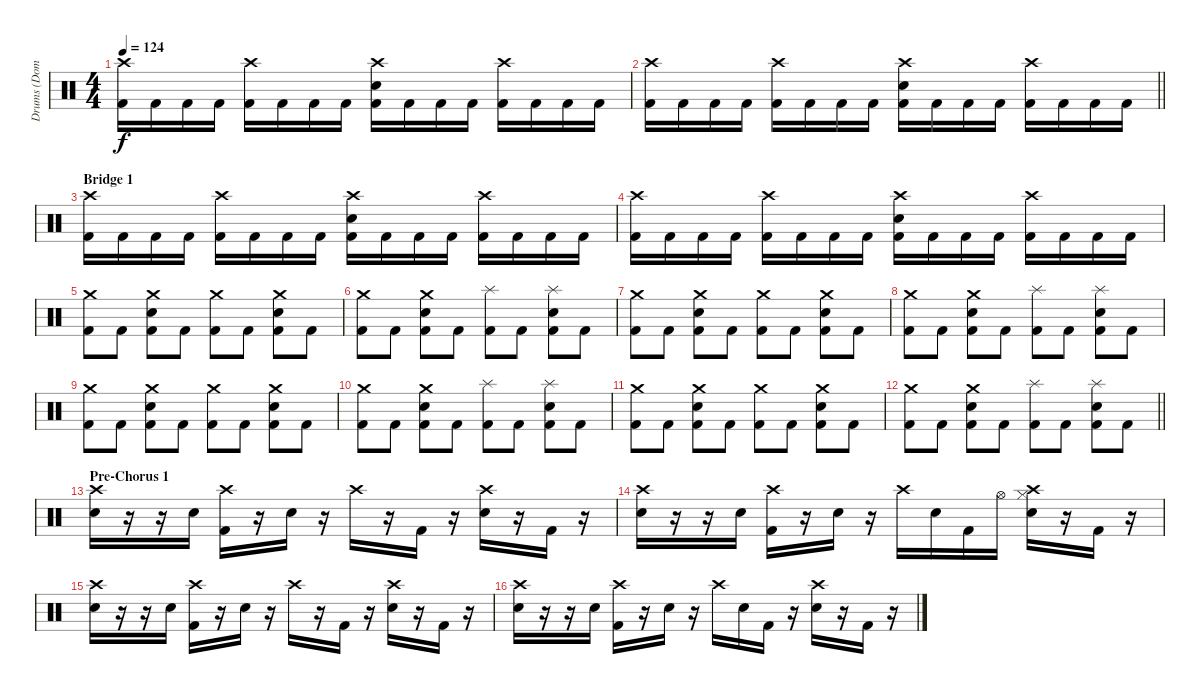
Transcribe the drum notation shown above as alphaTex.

\track ("Drums (Dominik)" "Drums (Dom") {instrument percussion}
\staff {score}
\articulation defaults
\ts (4 4)
\tempo 124
\clef neutral
\ks c
("Crash high (hit)" "Kick (hit) 2").16{dy f} "Kick (hit) 2".16 "Kick (hit) 2".16 "Kick (hit) 2".16 ("Crash high (hit)" "Kick (hit) 2").16 "Kick (hit) 2".16 "Kick (hit) 2".16 "Kick (hit) 2".16 ("Crash high (hit)" "Electric Snare (hit)" "Kick (hit) 2").16 "Kick (hit) 2".16 "Kick (hit) 2".16 "Kick (hit) 2".16 ("Crash high (hit)" "Kick (hit) 2").16 "Kick (hit) 2".16 "Kick (hit) 2".16 "Kick (hit) 2".16 |
\barLineRight lightlight
("Crash high (hit)" "Kick (hit) 2").16 "Kick (hit) 2".16 "Kick (hit) 2".16 "Kick (hit) 2".16 ("Crash high (hit)" "Kick (hit) 2").16 "Kick (hit) 2".16 "Kick (hit) 2".16 "Kick (hit) 2".16 ("Crash high (hit)" "Electric Snare (hit)" "Kick (hit) 2").16 "Kick (hit) 2".16 "Kick (hit) 2".16 "Kick (hit) 2".16 ("Crash high (hit)" "Kick (hit) 2").16 "Kick (hit) 2".16 "Kick (hit) 2".16 "Kick (hit) 2".16 |
\section ("" "Bridge 1")
("Crash high (hit)" "Kick (hit) 2").16 "Kick (hit) 2".16 "Kick (hit) 2".16 "Kick (hit) 2".16 ("Crash high (hit)" "Kick (hit) 2").16 "Kick (hit) 2".16 "Kick (hit) 2".16 "Kick (hit) 2".16 ("Crash high (hit)" "Electric Snare (hit)" "Kick (hit) 2").16 "Kick (hit) 2".16 "Kick (hit) 2".16 "Kick (hit) 2".16 ("Crash high (hit)" "Kick (hit) 2").16 "Kick (hit) 2".16 "Kick (hit) 2".16 "Kick (hit) 2".16 |
("Crash high (hit)" "Kick (hit) 2").16 "Kick (hit) 2".16 "Kick (hit) 2".16 "Kick (hit) 2".16 ("Crash high (hit)" "Kick (hit) 2").16 "Kick (hit) 2".16 "Kick (hit) 2".16 "Kick (hit) 2".16 ("Crash high (hit)" "Electric Snare (hit)" "Kick (hit) 2").16 "Kick (hit) 2".16 "Kick (hit) 2".16 "Kick (hit) 2".16 ("Crash high (hit)" "Kick (hit) 2").16 "Kick (hit) 2".16 "Kick (hit) 2".16 "Kick (hit) 2".16 |
("Crash medium (hit)" "Kick (hit) 2").8 "Kick (hit) 2".8 ("Crash medium (hit)" "Electric Snare (hit)" "Kick (hit) 2").8 "Kick (hit) 2".8 ("Crash medium (hit)" "Kick (hit) 2").8 "Kick (hit) 2".8 ("Crash medium (hit)" "Electric Snare (hit)" "Kick (hit) 2").8 "Kick (hit) 2".8 |
("Crash medium (hit)" "Kick (hit) 2").8 "Kick (hit) 2".8 ("Crash medium (hit)" "Electric Snare (hit)" "Kick (hit) 2").8 "Kick (hit) 2".8 ("Splash (hit)" "Kick (hit) 2").8 "Kick (hit) 2".8 ("Splash (hit)" "Electric Snare (hit)" "Kick (hit) 2").8 "Kick (hit) 2".8 |
("Crash medium (hit)" "Kick (hit) 2").8 "Kick (hit) 2".8 ("Crash medium (hit)" "Electric Snare (hit)" "Kick (hit) 2").8 "Kick (hit) 2".8 ("Crash medium (hit)" "Kick (hit) 2").8 "Kick (hit) 2".8 ("Crash medium (hit)" "Electric Snare (hit)" "Kick (hit) 2").8 "Kick (hit) 2".8 |
("Crash medium (hit)" "Kick (hit) 2").8 "Kick (hit) 2".8 ("Crash medium (hit)" "Electric Snare (hit)" "Kick (hit) 2").8 "Kick (hit) 2".8 ("Splash (hit)" "Kick (hit) 2").8 "Kick (hit) 2".8 ("Splash (hit)" "Electric Snare (hit)" "Kick (hit) 2").8 "Kick (hit) 2".8 |
("Crash medium (hit)" "Kick (hit) 2").8 "Kick (hit) 2".8 ("Crash medium (hit)" "Electric Snare (hit)" "Kick (hit) 2").8 "Kick (hit) 2".8 ("Crash medium (hit)" "Kick (hit) 2").8 "Kick (hit) 2".8 ("Crash medium (hit)" "Electric Snare (hit)" "Kick (hit) 2").8 "Kick (hit) 2".8 |
("Crash medium (hit)" "Kick (hit) 2").8 "Kick (hit) 2".8 ("Crash medium (hit)" "Electric Snare (hit)" "Kick (hit) 2").8 "Kick (hit) 2".8 ("Splash (hit)" "Kick (hit) 2").8 "Kick (hit) 2".8 ("Splash (hit)" "Electric Snare (hit)" "Kick (hit) 2").8 "Kick (hit) 2".8 |
("Crash medium (hit)" "Kick (hit) 2").8 "Kick (hit) 2".8 ("Crash medium (hit)" "Electric Snare (hit)" "Kick (hit) 2").8 "Kick (hit) 2".8 ("Crash medium (hit)" "Kick (hit) 2").8 "Kick (hit) 2".8 ("Crash medium (hit)" "Electric Snare (hit)" "Kick (hit) 2").8 "Kick (hit) 2".8 |
\barLineRight lightlight
("Crash medium (hit)" "Kick (hit) 2").8 "Kick (hit) 2".8 ("Crash medium (hit)" "Electric Snare (hit)" "Kick (hit) 2").8 "Kick (hit) 2".8 ("Splash (hit)" "Kick (hit) 2").8 "Kick (hit) 2".8 ("Splash (hit)" "Electric Snare (hit)" "Kick (hit) 2").8 "Kick (hit) 2".8 |
\section ("" "Pre-Chorus 1")
("Crash high (hit)" "Electric Snare (hit)").16 r.16 r.16 "Electric Snare (hit)".16 ("Crash high (hit)" "Kick (hit) 2").16 r.16 "Electric Snare (hit)".16 r.16 "Crash high (hit)".16 r.16 "Kick (hit) 2".16 r.16 ("Crash high (hit)" "Electric Snare (hit)").16 r.16 "Kick (hit) 2".16 r.16 |
("Crash high (hit)" "Electric Snare (hit)").16 r.16 r.16 "Electric Snare (hit)".16 ("Crash high (hit)" "Kick (hit) 2").16 r.16 "Electric Snare (hit)".16 r.16 "Crash high (hit)".16 "Electric Snare (hit)".16 "Kick (hit) 2".16 "Hi-Hat (open)".16 ("Crash high (hit)" "Hi-Hat (closed)" "Electric Snare (hit)").16 r.16 "Kick (hit) 2".16 r.16 |
("Crash high (hit)" "Electric Snare (hit)").16 r.16 r.16 "Electric Snare (hit)".16 ("Crash high (hit)" "Kick (hit) 2").16 r.16 "Electric Snare (hit)".16 r.16 "Crash high (hit)".16 r.16 "Kick (hit) 2".16 r.16 ("Crash high (hit)" "Electric Snare (hit)").16 r.16 "Kick (hit) 2".16 r.16 |
("Crash high (hit)" "Electric Snare (hit)").16 r.16 r.16 "Electric Snare (hit)".16 ("Crash high (hit)" "Kick (hit) 2").16 r.16 "Electric Snare (hit)".16 r.16 "Crash high (hit)".16 "Electric Snare (hit)".16 "Kick (hit) 2".16 r.16 ("Crash high (hit)" "Electric Snare (hit)").16 r.16 "Kick (hit) 2".16 r.16
